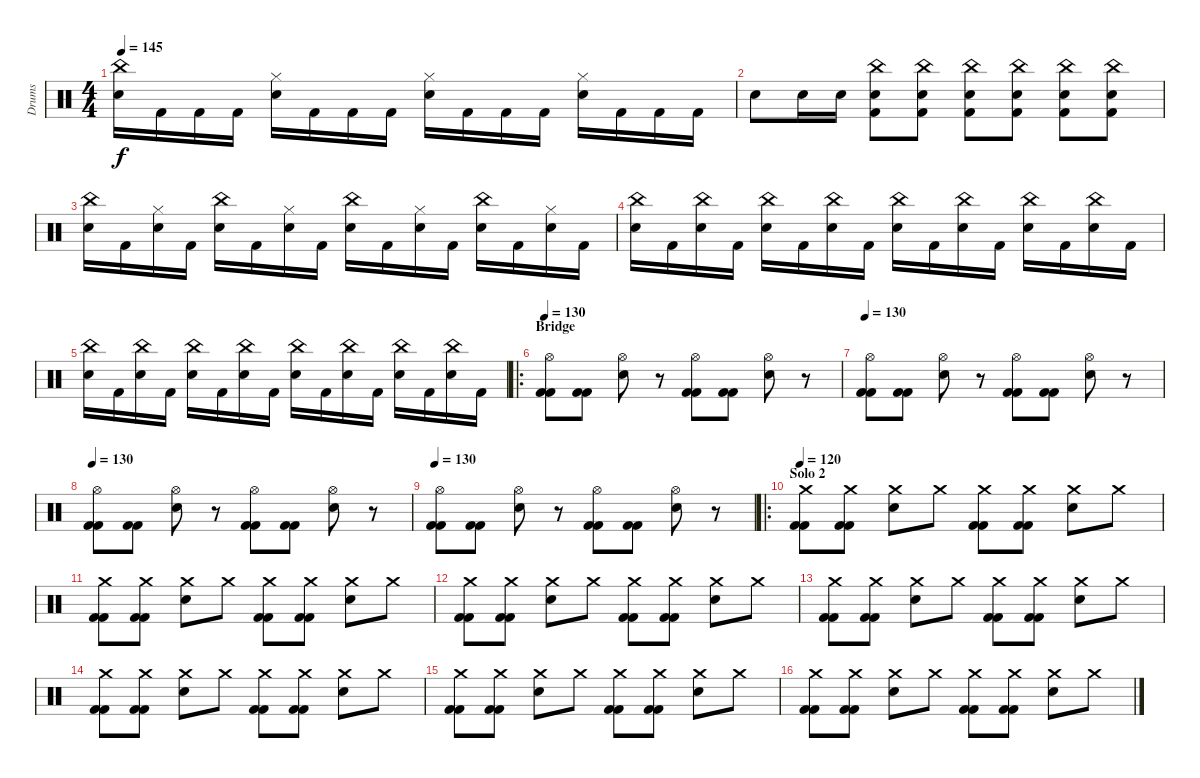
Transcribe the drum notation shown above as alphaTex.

\track ("Drums" "Drums") {instrument percussion}
\staff {score}
\articulation defaults
\ts (4 4)
\tempo 145
\clef neutral
\ks c
("China (hit)" "Electric Snare (hit)").16{dy f} "Kick (hit) 2".16 "Kick (hit) 2".16 "Kick (hit) 2".16 ("Electric Snare (hit)" "Hi-Hat (closed)").16 "Kick (hit) 2".16 "Kick (hit) 2".16 "Kick (hit) 2".16 ("Hi-Hat (closed)" "Electric Snare (hit)").16 "Kick (hit) 2".16 "Kick (hit) 2".16 "Kick (hit) 2".16 ("Electric Snare (hit)" "Hi-Hat (closed)").16 "Kick (hit) 2".16 "Kick (hit) 2".16 "Kick (hit) 2".16 |
"Electric Snare (hit)".8 "Electric Snare (hit)".16 "Electric Snare (hit)".16 ("Kick (hit) 2" "China (hit)" "Electric Snare (hit)").8 ("Kick (hit) 2" "Electric Snare (hit)" "China (hit)").8 ("Kick (hit) 2" "China (hit)" "Electric Snare (hit)").8 ("Kick (hit) 2" "China (hit)" "Electric Snare (hit)").8 ("Kick (hit) 2" "Electric Snare (hit)" "China (hit)").8 ("Kick (hit) 2" "China (hit)" "Electric Snare (hit)").8 |
("China (hit)" "Electric Snare (hit)").16 "Kick (hit) 2".16 ("Electric Snare (hit)" "Hi-Hat (closed)").16 "Kick (hit) 2".16 ("China (hit)" "Electric Snare (hit)").16 "Kick (hit) 2".16 ("Electric Snare (hit)" "Hi-Hat (closed)").16 "Kick (hit) 2".16 ("Electric Snare (hit)" "China (hit)").16 "Kick (hit) 2".16 ("Hi-Hat (closed)" "Electric Snare (hit)").16 "Kick (hit) 2".16 ("Electric Snare (hit)" "China (hit)").16 "Kick (hit) 2".16 ("Hi-Hat (closed)" "Electric Snare (hit)").16 "Kick (hit) 2".16 |
("China (hit)" "Electric Snare (hit)").16 "Kick (hit) 2".16 ("Electric Snare (hit)" "China (hit)").16 "Kick (hit) 2".16 ("China (hit)" "Electric Snare (hit)").16 "Kick (hit) 2".16 ("Electric Snare (hit)" "China (hit)").16 "Kick (hit) 2".16 ("Electric Snare (hit)" "China (hit)").16 "Kick (hit) 2".16 ("China (hit)" "Electric Snare (hit)").16 "Kick (hit) 2".16 ("Electric Snare (hit)" "China (hit)").16 "Kick (hit) 2".16 ("China (hit)" "Electric Snare (hit)").16 "Kick (hit) 2".16 |
("China (hit)" "Electric Snare (hit)").16 "Kick (hit) 2".16 ("Electric Snare (hit)" "China (hit)").16 "Kick (hit) 2".16 ("China (hit)" "Electric Snare (hit)").16 "Kick (hit) 2".16 ("Electric Snare (hit)" "China (hit)").16 "Kick (hit) 2".16 ("Electric Snare (hit)" "China (hit)").16 "Kick (hit) 2".16 ("China (hit)" "Electric Snare (hit)").16 "Kick (hit) 2".16 ("Electric Snare (hit)" "China (hit)").16 "Kick (hit) 2".16 ("China (hit)" "Electric Snare (hit)").16 "Kick (hit) 2".16 |
\ro
\section ("" "Bridge ")
\tempo 130
("Hi-Hat (open)" "Kick (hit) 2" "Kick (hit) 2").8 ("Kick (hit) 2" "Kick (hit) 2").8 ("Electric Snare (hit)" "Hi-Hat (open)").8 r.8 ("Hi-Hat (open)" "Kick (hit) 2" "Kick (hit) 2").8 ("Kick (hit) 2" "Kick (hit) 2").8 ("Electric Snare (hit)" "Hi-Hat (open)").8 r.8 |
\tempo 130
("Hi-Hat (open)" "Kick (hit) 2" "Kick (hit) 2").8 ("Kick (hit) 2" "Kick (hit) 2").8 ("Electric Snare (hit)" "Hi-Hat (open)").8 r.8 ("Hi-Hat (open)" "Kick (hit) 2" "Kick (hit) 2").8 ("Kick (hit) 2" "Kick (hit) 2").8 ("Electric Snare (hit)" "Hi-Hat (open)").8 r.8 |
\tempo 130
("Hi-Hat (open)" "Kick (hit) 2" "Kick (hit) 2").8 ("Kick (hit) 2" "Kick (hit) 2").8 ("Electric Snare (hit)" "Hi-Hat (open)").8 r.8 ("Hi-Hat (open)" "Kick (hit) 2" "Kick (hit) 2").8 ("Kick (hit) 2" "Kick (hit) 2").8 ("Electric Snare (hit)" "Hi-Hat (open)").8 r.8 |
\tempo 130
("Hi-Hat (open)" "Kick (hit) 2" "Kick (hit) 2").8 ("Kick (hit) 2" "Kick (hit) 2").8 ("Electric Snare (hit)" "Hi-Hat (open)").8 r.8 ("Hi-Hat (open)" "Kick (hit) 2" "Kick (hit) 2").8 ("Kick (hit) 2" "Kick (hit) 2").8 ("Electric Snare (hit)" "Hi-Hat (open)").8 r.8 |
\ro
\section ("" "Solo 2")
\tempo 120
("Crash medium (hit)" "Kick (hit) 2" "Kick (hit) 2").8 ("Kick (hit) 2" "Kick (hit) 2" "Crash medium (hit)").8 ("Crash medium (hit)" "Electric Snare (hit)").8 "Crash medium (hit)".8 ("Kick (hit) 2" "Kick (hit) 2" "Crash medium (hit)").8 ("Crash medium (hit)" "Kick (hit) 2" "Kick (hit) 2").8 ("Electric Snare (hit)" "Crash medium (hit)").8 "Crash medium (hit)".8 |
("Crash medium (hit)" "Kick (hit) 2" "Kick (hit) 2").8 ("Kick (hit) 2" "Kick (hit) 2" "Crash medium (hit)").8 ("Crash medium (hit)" "Electric Snare (hit)").8 "Crash medium (hit)".8 ("Kick (hit) 2" "Kick (hit) 2" "Crash medium (hit)").8 ("Crash medium (hit)" "Kick (hit) 2" "Kick (hit) 2").8 ("Electric Snare (hit)" "Crash medium (hit)").8 "Crash medium (hit)".8 |
("Crash medium (hit)" "Kick (hit) 2" "Kick (hit) 2").8 ("Kick (hit) 2" "Kick (hit) 2" "Crash medium (hit)").8 ("Crash medium (hit)" "Electric Snare (hit)").8 "Crash medium (hit)".8 ("Kick (hit) 2" "Kick (hit) 2" "Crash medium (hit)").8 ("Crash medium (hit)" "Kick (hit) 2" "Kick (hit) 2").8 ("Electric Snare (hit)" "Crash medium (hit)").8 "Crash medium (hit)".8 |
("Crash medium (hit)" "Kick (hit) 2" "Kick (hit) 2").8 ("Kick (hit) 2" "Kick (hit) 2" "Crash medium (hit)").8 ("Crash medium (hit)" "Electric Snare (hit)").8 "Crash medium (hit)".8 ("Kick (hit) 2" "Kick (hit) 2" "Crash medium (hit)").8 ("Crash medium (hit)" "Kick (hit) 2" "Kick (hit) 2").8 ("Electric Snare (hit)" "Crash medium (hit)").8 "Crash medium (hit)".8 |
("Crash medium (hit)" "Kick (hit) 2" "Kick (hit) 2").8 ("Kick (hit) 2" "Kick (hit) 2" "Crash medium (hit)").8 ("Crash medium (hit)" "Electric Snare (hit)").8 "Crash medium (hit)".8 ("Kick (hit) 2" "Kick (hit) 2" "Crash medium (hit)").8 ("Crash medium (hit)" "Kick (hit) 2" "Kick (hit) 2").8 ("Electric Snare (hit)" "Crash medium (hit)").8 "Crash medium (hit)".8 |
("Crash medium (hit)" "Kick (hit) 2" "Kick (hit) 2").8 ("Kick (hit) 2" "Kick (hit) 2" "Crash medium (hit)").8 ("Crash medium (hit)" "Electric Snare (hit)").8 "Crash medium (hit)".8 ("Kick (hit) 2" "Kick (hit) 2" "Crash medium (hit)").8 ("Crash medium (hit)" "Kick (hit) 2" "Kick (hit) 2").8 ("Electric Snare (hit)" "Crash medium (hit)").8 "Crash medium (hit)".8 |
("Crash medium (hit)" "Kick (hit) 2" "Kick (hit) 2").8 ("Kick (hit) 2" "Kick (hit) 2" "Crash medium (hit)").8 ("Crash medium (hit)" "Electric Snare (hit)").8 "Crash medium (hit)".8 ("Kick (hit) 2" "Kick (hit) 2" "Crash medium (hit)").8 ("Crash medium (hit)" "Kick (hit) 2" "Kick (hit) 2").8 ("Electric Snare (hit)" "Crash medium (hit)").8 "Crash medium (hit)".8
